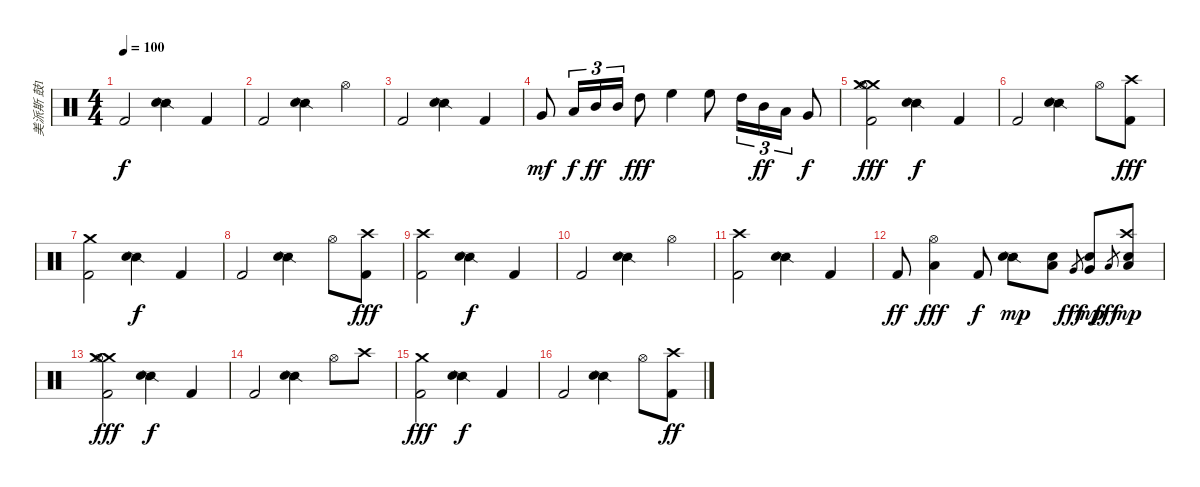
\track ("美派斯 鼓1" "美派斯 鼓1") {instrument percussion}
\staff {score}
\articulation defaults
\ts (4 4)
\tempo 100
\clef neutral
\ks c "Kick (hit) 2".2{dy f}
("Snare (side stick) 2" "Snare (hit) 2").4 "Kick (hit) 2".4 |
"Kick (hit) 2".2 ("Snare (side stick) 2" "Snare (hit) 2").4 "Hi-Hat (open)".4 |
"Kick (hit) 2".2 ("Snare (side stick) 2" "Snare (hit) 2").4 "Kick (hit) 2".4 |
"Very Low Tom (hit)".8{dy mf} "Low Tom (hit)".16{tu (3 2) dy f} "Mid Tom (hit)".16{tu (3 2) dy ff} "Mid Tom (hit)".16{tu (3 2)} "High Tom (hit)".8{dy fff} "High Floor Tom (hit)".4 "High Floor Tom (hit)".8 "High Tom (hit)".16{tu (3 2)} "Mid Tom (hit)".16{tu (3 2) dy ff} "Low Tom (hit)".16{tu (3 2)} "Very Low Tom (hit)".8{dy f} |
("Crash medium (hit)" "Crash medium (hit)" "Kick (hit) 2" "Hi-Hat (open)").2{dy fff} ("Snare (side stick) 2" "Snare (hit) 2").4{dy f} "Kick (hit) 2".4 |
"Kick (hit) 2".2 ("Snare (side stick) 2" "Snare (hit) 2").4 "Hi-Hat (open)".8 ("Kick (hit) 2" "Crash high (hit)").8{dy fff} |
("Kick (hit) 2" "Crash medium (hit)").2 ("Snare (side stick) 2" "Snare (hit) 2").4{dy f} "Kick (hit) 2".4 |
"Kick (hit) 2".2 ("Snare (side stick) 2" "Snare (hit) 2").4 "Hi-Hat (open)".8 ("Kick (hit) 2" "Crash high (hit)").8{dy fff} |
("Crash high (hit)" "Kick (hit) 2").2 ("Snare (side stick) 2" "Snare (hit) 2").4{dy f} "Kick (hit) 2".4 |
"Kick (hit) 2".2 ("Snare (side stick) 2" "Snare (hit) 2").4 "Hi-Hat (open)".4 |
("Crash high (hit)" "Kick (hit) 2").2 ("Snare (side stick) 2" "Snare (hit) 2").4 "Kick (hit) 2".4 |
"Kick (hit) 2".8{dy ff} ("Hi-Hat (open)" "Low Tom (hit)").4{dy fff} "Kick (hit) 2".8{dy f} ("Snare (side stick) 2" "Snare (hit) 2").8{dy mp} ("Low Tom (hit)" "Snare (hit) 2").8 "Very Low Tom (hit)".8{gr dy fff} ("Very Low Tom (hit)" "Snare (hit) 2").8{dy mp} "Low Floor Tom (hit)".8{gr dy fff} ("Crash high (hit)" "Low Floor Tom (hit)" "Snare (hit) 2").8{dy mp} |
("Crash medium (hit)" "Crash medium (hit)" "Kick (hit) 2" "Hi-Hat (open)").2{dy fff} ("Snare (side stick) 2" "Snare (hit) 2").4{dy f} "Kick (hit) 2".4 |
"Kick (hit) 2".2 ("Snare (side stick) 2" "Snare (hit) 2").4 "Hi-Hat (open)".8 "Crash high (hit)".8 |
("Crash medium (hit)" "Kick (hit) 2").2{dy fff} ("Snare (side stick) 2" "Snare (hit) 2").4{dy f} "Kick (hit) 2".4 |
"Kick (hit) 2".2 ("Snare (side stick) 2" "Snare (hit) 2").4 "Hi-Hat (open)".8 ("Crash high (hit)" "Kick (hit) 2").8{dy ff}
